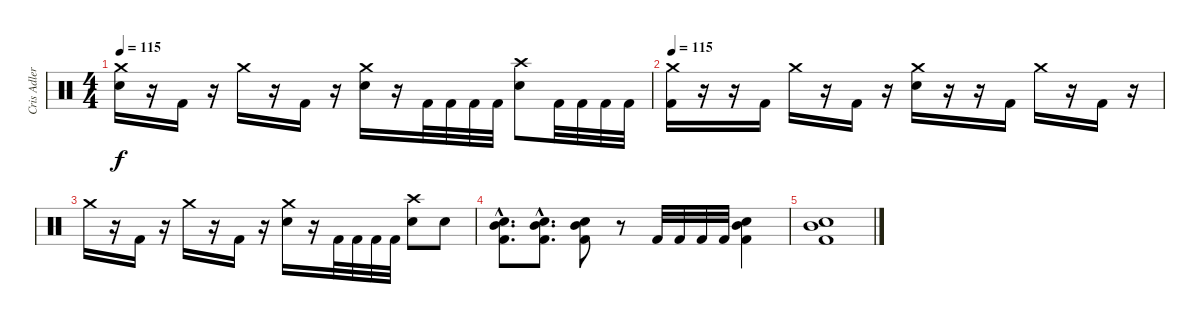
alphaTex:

\track ("Cris Adler" "Cris Adler") {instrument percussion}
\staff {score}
\articulation defaults
\ts (4 4)
\tempo 115
\clef neutral
\ks c
("Crash medium (hit)" "Electric Snare (hit)").16{dy f} r.16 "Kick (hit) 2".16 r.16 "Crash medium (hit)".16 r.16 "Kick (hit) 2".16 r.16 ("Crash medium (hit)" "Electric Snare (hit)").16 r.16 "Kick (hit) 2".32 "Kick (hit) 2".32 "Kick (hit) 2".32 "Kick (hit) 2".32 ("Crash high (hit)" "Electric Snare (hit)").8 "Kick (hit) 2".32 "Kick (hit) 2".32 "Kick (hit) 2".32 "Kick (hit) 2".32 |
\tempo 115
("Crash medium (hit)" "Kick (hit) 2").16 r.16 r.16 "Kick (hit) 2".16 "Crash medium (hit)".16 r.16 "Kick (hit) 2".16 r.16 ("Crash medium (hit)" "Electric Snare (hit)").16 r.16 r.16 "Kick (hit) 2".16 "Crash medium (hit)".16 r.16 "Kick (hit) 2".16 r.16 |
"Crash medium (hit)".16 r.16 "Kick (hit) 2".16 r.16 "Crash medium (hit)".16 r.16 "Kick (hit) 2".16 r.16 ("Crash medium (hit)" "Electric Snare (hit)").16 r.16 "Kick (hit) 2".32 "Kick (hit) 2".32 "Kick (hit) 2".32 "Kick (hit) 2".32 ("Crash high (hit)" "Electric Snare (hit)").8 "Electric Snare (hit)".8 |
("Mid Tom (hit)"{hac} "Kick (hit) 2"{hac} "Electric Snare (hit)"{hac}).8{d} ("Mid Tom (hit)"{hac} "Kick (hit) 2"{hac} "Electric Snare (hit)"{hac}).8{d} ("Mid Tom (hit)" "Kick (hit) 2" "Electric Snare (hit)").8 r.8 "Kick (hit) 2".32 "Kick (hit) 2".32 "Kick (hit) 2".32 "Kick (hit) 2".32 ("Kick (hit) 2" "Mid Tom (hit)" "Electric Snare (hit)").4 |
("Kick (hit) 2" "Mid Tom (hit)" "Electric Snare (hit)").1
